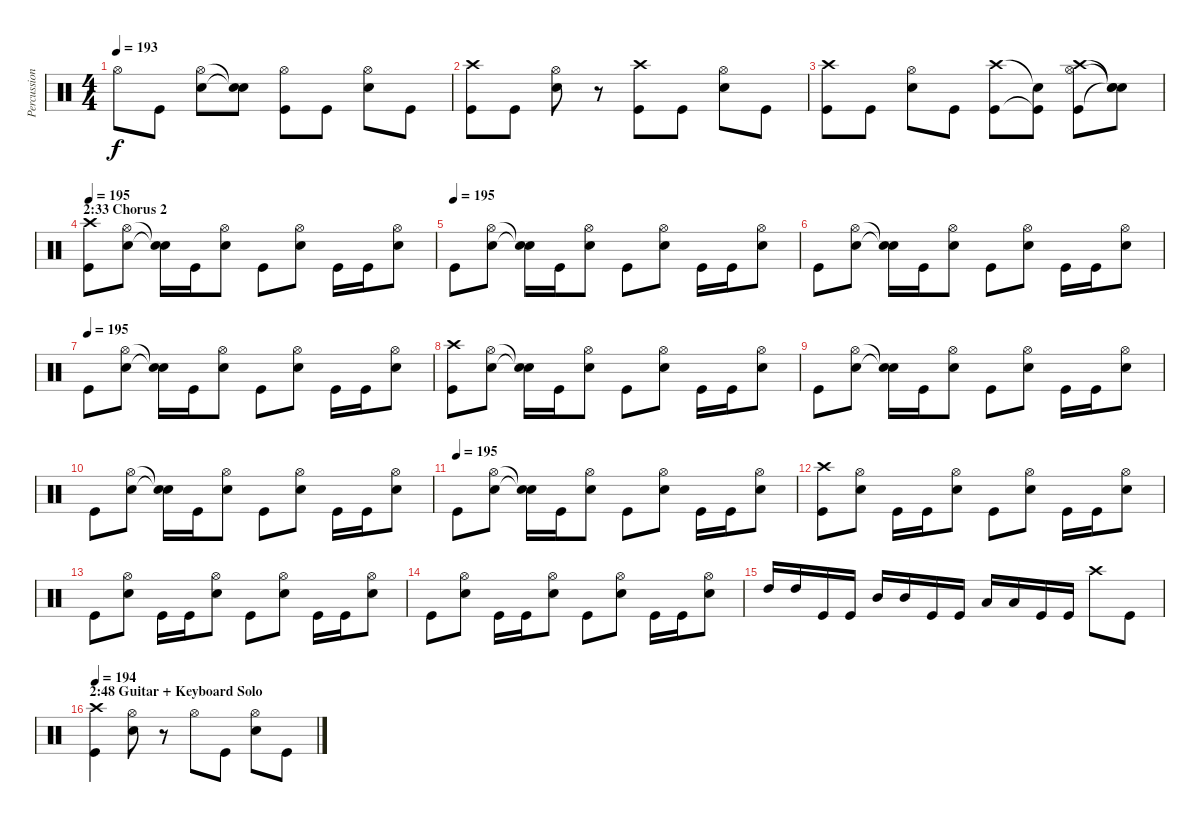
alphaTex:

\track ("Percussion" "Percussion") {instrument percussion}
\staff {score}
\articulation defaults
\ts (4 4)
\tempo 193
\clef neutral
\ks c "Hi-Hat (open)".8{dy f} "Kick (hit)".8
("Hi-Hat (open)" "Snare (hit) 2").8 ("Snare (hit)"{t} "Snare (hit)"{t}).8 ("Hi-Hat (open)" "Kick (hit)").8 "Kick (hit)".8 ("Hi-Hat (open)" "Snare (hit) 2").8 "Kick (hit)".8 |
("Crash high (hit)" "Kick (hit)").8 "Kick (hit)".8 ("Hi-Hat (open)" "Snare (hit) 2").8 r.8 ("Crash high (hit)" "Kick (hit)").8 "Kick (hit)".8 ("Hi-Hat (open)" "Snare (hit) 2").8 "Kick (hit)".8 |
("Crash high (hit)" "Kick (hit)").8 "Kick (hit)".8 ("Hi-Hat (open)" "Snare (hit) 2").8 "Kick (hit)".8 ("Crash high (hit)" "Kick (hit)").8 ("Snare (hit)"{t} "Kick (hit)"{t}).8 ("Crash high (hit)" "Hi-Hat (open)" "Kick (hit)").8 ("Snare (hit)"{t} "Snare (hit)"{t} "Snare (hit)"{t}).8 |
\section ("" "2:33 Chorus 2")
\tempo 194
\tempo 195
("Crash high (hit)" "Kick (hit)").8 ("Hi-Hat (open)" "Snare (hit) 2").8 ("Snare (hit)"{t} "Snare (hit)"{t}).16 "Kick (hit)".16 ("Hi-Hat (open)" "Snare (hit) 2").8 "Kick (hit)".8 ("Hi-Hat (open)" "Snare (hit) 2").8 "Kick (hit)".16 "Kick (hit)".16 ("Hi-Hat (open)" "Snare (hit) 2").8 |
\tempo (195)
"Kick (hit)".8 ("Hi-Hat (open)" "Snare (hit) 2").8 ("Snare (hit)"{t} "Snare (hit)"{t}).16 "Kick (hit)".16 ("Hi-Hat (open)" "Snare (hit) 2").8 "Kick (hit)".8 ("Hi-Hat (open)" "Snare (hit) 2").8 "Kick (hit)".16 "Kick (hit)".16 ("Hi-Hat (open)" "Snare (hit) 2").8 |
"Kick (hit)".8 ("Hi-Hat (open)" "Snare (hit) 2").8 ("Snare (hit)"{t} "Snare (hit)"{t}).16 "Kick (hit)".16 ("Hi-Hat (open)" "Snare (hit) 2").8 "Kick (hit)".8 ("Hi-Hat (open)" "Snare (hit) 2").8 "Kick (hit)".16 "Kick (hit)".16 ("Hi-Hat (open)" "Snare (hit) 2").8 |
\tempo (195)
"Kick (hit)".8 ("Hi-Hat (open)" "Snare (hit) 2").8 ("Snare (hit)"{t} "Snare (hit)"{t}).16 "Kick (hit)".16 ("Hi-Hat (open)" "Snare (hit) 2").8 "Kick (hit)".8 ("Hi-Hat (open)" "Snare (hit) 2").8 "Kick (hit)".16 "Kick (hit)".16 ("Hi-Hat (open)" "Snare (hit) 2").8 |
("Crash high (hit)" "Kick (hit)").8 ("Hi-Hat (open)" "Snare (hit) 2").8 ("Snare (hit)"{t} "Snare (hit)"{t}).16 "Kick (hit)".16 ("Hi-Hat (open)" "Snare (hit) 2").8 "Kick (hit)".8 ("Hi-Hat (open)" "Snare (hit) 2").8 "Kick (hit)".16 "Kick (hit)".16 ("Hi-Hat (open)" "Snare (hit) 2").8 |
"Kick (hit)".8 ("Hi-Hat (open)" "Snare (hit) 2").8 ("Snare (hit)"{t} "Snare (hit)"{t}).16 "Kick (hit)".16 ("Hi-Hat (open)" "Snare (hit) 2").8 "Kick (hit)".8 ("Hi-Hat (open)" "Snare (hit) 2").8 "Kick (hit)".16 "Kick (hit)".16 ("Hi-Hat (open)" "Snare (hit) 2").8 |
"Kick (hit)".8 ("Hi-Hat (open)" "Snare (hit) 2").8 ("Snare (hit)"{t} "Snare (hit)"{t}).16 "Kick (hit)".16 ("Hi-Hat (open)" "Snare (hit) 2").8 "Kick (hit)".8 ("Hi-Hat (open)" "Snare (hit) 2").8 "Kick (hit)".16 "Kick (hit)".16 ("Hi-Hat (open)" "Snare (hit) 2").8 |
\tempo (195)
"Kick (hit)".8 ("Hi-Hat (open)" "Snare (hit) 2").8 ("Snare (hit)"{t} "Snare (hit)"{t}).16 "Kick (hit)".16 ("Hi-Hat (open)" "Snare (hit) 2").8 "Kick (hit)".8 ("Hi-Hat (open)" "Snare (hit) 2").8 "Kick (hit)".16 "Kick (hit)".16 ("Hi-Hat (open)" "Snare (hit) 2").8 |
("Crash high (hit)" "Kick (hit)").8 ("Hi-Hat (open)" "Snare (hit) 2").8 "Kick (hit)".16 "Kick (hit)".16 ("Hi-Hat (open)" "Snare (hit) 2").8 "Kick (hit)".8 ("Hi-Hat (open)" "Snare (hit) 2").8 "Kick (hit)".16 "Kick (hit)".16 ("Hi-Hat (open)" "Snare (hit) 2").8 |
"Kick (hit)".8 ("Hi-Hat (open)" "Snare (hit) 2").8 "Kick (hit)".16 "Kick (hit)".16 ("Hi-Hat (open)" "Snare (hit) 2").8 "Kick (hit)".8 ("Hi-Hat (open)" "Snare (hit) 2").8 "Kick (hit)".16 "Kick (hit)".16 ("Hi-Hat (open)" "Snare (hit) 2").8 |
"Kick (hit)".8 ("Hi-Hat (open)" "Snare (hit) 2").8 "Kick (hit)".16 "Kick (hit)".16 ("Hi-Hat (open)" "Snare (hit) 2").8 "Kick (hit)".8 ("Hi-Hat (open)" "Snare (hit) 2").8 "Kick (hit)".16 "Kick (hit)".16 ("Hi-Hat (open)" "Snare (hit) 2").8 |
"High Tom (hit)".16 "High Tom (hit)".16 "Kick (hit)".16 "Kick (hit)".16 "Mid Tom (hit)".16 "Mid Tom (hit)".16 "Kick (hit)".16 "Kick (hit)".16 "Low Tom (hit)".16 "Low Tom (hit)".16 "Kick (hit)".16 "Kick (hit)".16 "Crash high (hit)".8 "Kick (hit)".8 |
\section ("" "2:48 Guitar + Keyboard Solo")
\tempo 194
("Crash high (hit)" "Kick (hit)").4 ("Hi-Hat (open)" "Snare (hit) 2").8 r.8 "Hi-Hat (open)".8 "Kick (hit)".8 ("Hi-Hat (open)" "Snare (hit) 2").8 "Kick (hit)".8
